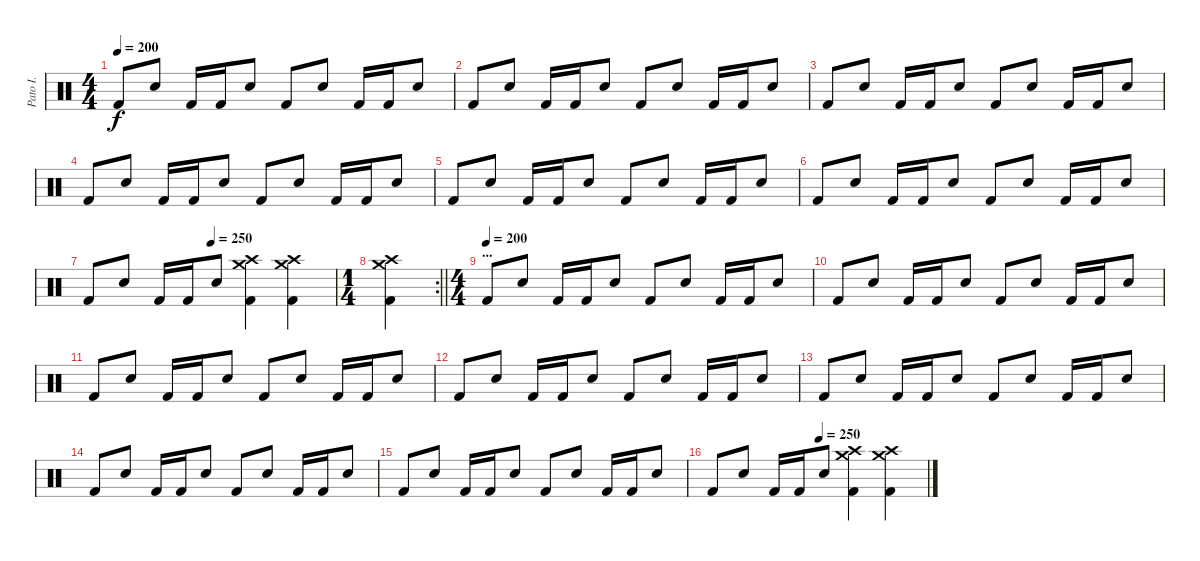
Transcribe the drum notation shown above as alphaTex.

\track ("Pato I." "Pato I.") {instrument percussion}
\staff {score}
\articulation defaults
\ts (4 4)
\tempo 200
\clef neutral
\ks c "Kick (hit) 2".8{dy f} "Snare (hit) 2".8 "Kick (hit) 2".16 "Kick (hit) 2".16 "Snare (hit) 2".8 "Kick (hit) 2".8 "Snare (hit) 2".8 "Kick (hit) 2".16 "Kick (hit) 2".16 "Snare (hit) 2".8
|
"Kick (hit) 2".8 "Snare (hit) 2".8 "Kick (hit) 2".16 "Kick (hit) 2".16 "Snare (hit) 2".8 "Kick (hit) 2".8 "Snare (hit) 2".8 "Kick (hit) 2".16 "Kick (hit) 2".16 "Snare (hit) 2".8 |
"Kick (hit) 2".8 "Snare (hit) 2".8 "Kick (hit) 2".16 "Kick (hit) 2".16 "Snare (hit) 2".8 "Kick (hit) 2".8 "Snare (hit) 2".8 "Kick (hit) 2".16 "Kick (hit) 2".16 "Snare (hit) 2".8 |
"Kick (hit) 2".8 "Snare (hit) 2".8 "Kick (hit) 2".16 "Kick (hit) 2".16 "Snare (hit) 2".8 "Kick (hit) 2".8 "Snare (hit) 2".8 "Kick (hit) 2".16 "Kick (hit) 2".16 "Snare (hit) 2".8 |
"Kick (hit) 2".8 "Snare (hit) 2".8 "Kick (hit) 2".16 "Kick (hit) 2".16 "Snare (hit) 2".8 "Kick (hit) 2".8 "Snare (hit) 2".8 "Kick (hit) 2".16 "Kick (hit) 2".16 "Snare (hit) 2".8 |
"Kick (hit) 2".8 "Snare (hit) 2".8 "Kick (hit) 2".16 "Kick (hit) 2".16 "Snare (hit) 2".8 "Kick (hit) 2".8 "Snare (hit) 2".8 "Kick (hit) 2".16 "Kick (hit) 2".16 "Snare (hit) 2".8 |
\tempo (250 0.5)
"Kick (hit) 2".8 "Snare (hit) 2".8 "Kick (hit) 2".16 "Kick (hit) 2".16 "Snare (hit) 2".8 ("Crash high (hit)" "Crash medium (hit)" "Kick (hit) 2").4 ("Crash high (hit)" "Crash medium (hit)" "Kick (hit) 2").4 |
\rc 2
\ts (1 4)
\barLineRight lightlight
("Crash high (hit)" "Crash medium (hit)" "Kick (hit) 2").4 |
\ts (4 4)
\section ("" "...")
\tempo (200)
"Kick (hit) 2".8 "Snare (hit) 2".8 "Kick (hit) 2".16 "Kick (hit) 2".16 "Snare (hit) 2".8 "Kick (hit) 2".8 "Snare (hit) 2".8 "Kick (hit) 2".16 "Kick (hit) 2".16 "Snare (hit) 2".8 |
"Kick (hit) 2".8 "Snare (hit) 2".8 "Kick (hit) 2".16 "Kick (hit) 2".16 "Snare (hit) 2".8 "Kick (hit) 2".8 "Snare (hit) 2".8 "Kick (hit) 2".16 "Kick (hit) 2".16 "Snare (hit) 2".8 |
"Kick (hit) 2".8 "Snare (hit) 2".8 "Kick (hit) 2".16 "Kick (hit) 2".16 "Snare (hit) 2".8 "Kick (hit) 2".8 "Snare (hit) 2".8 "Kick (hit) 2".16 "Kick (hit) 2".16 "Snare (hit) 2".8 |
"Kick (hit) 2".8 "Snare (hit) 2".8 "Kick (hit) 2".16 "Kick (hit) 2".16 "Snare (hit) 2".8 "Kick (hit) 2".8 "Snare (hit) 2".8 "Kick (hit) 2".16 "Kick (hit) 2".16 "Snare (hit) 2".8 |
"Kick (hit) 2".8 "Snare (hit) 2".8 "Kick (hit) 2".16 "Kick (hit) 2".16 "Snare (hit) 2".8 "Kick (hit) 2".8 "Snare (hit) 2".8 "Kick (hit) 2".16 "Kick (hit) 2".16 "Snare (hit) 2".8 |
"Kick (hit) 2".8 "Snare (hit) 2".8 "Kick (hit) 2".16 "Kick (hit) 2".16 "Snare (hit) 2".8 "Kick (hit) 2".8 "Snare (hit) 2".8 "Kick (hit) 2".16 "Kick (hit) 2".16 "Snare (hit) 2".8 |
"Kick (hit) 2".8 "Snare (hit) 2".8 "Kick (hit) 2".16 "Kick (hit) 2".16 "Snare (hit) 2".8 "Kick (hit) 2".8 "Snare (hit) 2".8 "Kick (hit) 2".16 "Kick (hit) 2".16 "Snare (hit) 2".8 |
\tempo (250 0.5)
"Kick (hit) 2".8 "Snare (hit) 2".8 "Kick (hit) 2".16 "Kick (hit) 2".16 "Snare (hit) 2".8 ("Crash high (hit)" "Crash medium (hit)" "Kick (hit) 2").4 ("Crash high (hit)" "Crash medium (hit)" "Kick (hit) 2").4
